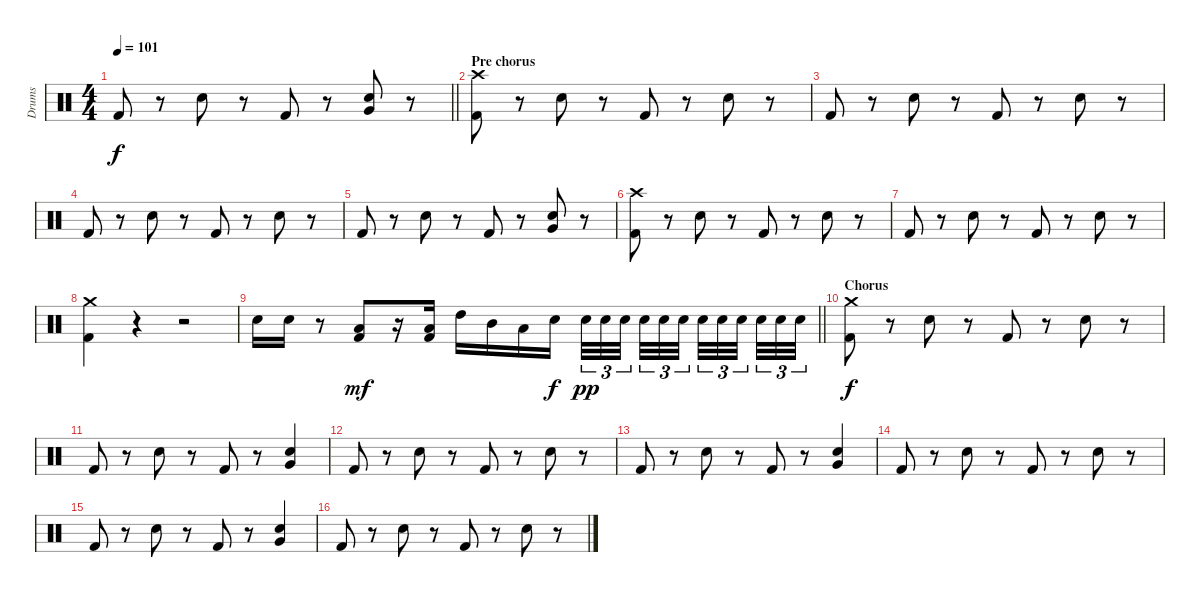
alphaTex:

\track ("Drums" "Drums") {instrument percussion}
\staff {score}
\articulation defaults
\ts (4 4)
\tempo 101
\clef neutral
\barLineRight lightlight
\ks c "Kick (hit) 2".8{dy f}
r.8 "Electric Snare (hit)".8 r.8 "Kick (hit) 2".8 r.8 ("Electric Snare (hit)" "Very Low Tom (hit)").8 r.8 |
\section ("" "Pre chorus")
("Crash high (hit)" "Kick (hit) 2").8 r.8 "Electric Snare (hit)".8 r.8 "Kick (hit) 2".8 r.8 "Electric Snare (hit)".8 r.8 |
"Kick (hit) 2".8 r.8 "Electric Snare (hit)".8 r.8 "Kick (hit) 2".8 r.8 "Electric Snare (hit)".8 r.8 |
"Kick (hit) 2".8 r.8 "Electric Snare (hit)".8 r.8 "Kick (hit) 2".8 r.8 "Electric Snare (hit)".8 r.8 |
"Kick (hit) 2".8 r.8 "Electric Snare (hit)".8 r.8 "Kick (hit) 2".8 r.8 ("Electric Snare (hit)" "Very Low Tom (hit)").8 r.8 |
("Crash high (hit)" "Kick (hit) 2").8 r.8 "Electric Snare (hit)".8 r.8 "Kick (hit) 2".8 r.8 "Electric Snare (hit)".8 r.8 |
"Kick (hit) 2".8 r.8 "Electric Snare (hit)".8 r.8 "Kick (hit) 2".8 r.8 "Electric Snare (hit)".8 r.8 |
("Crash medium (hit)" "Kick (hit) 2").4 r.4 r.2 |
\barLineRight lightlight "Electric Snare (hit)".16 "Electric Snare (hit)".16
r.8 ("Low Tom (hit)" "Kick (hit) 2").8{dy mf} r.16 ("Low Tom (hit)" "Kick (hit) 2").16 "High Tom (hit)".16 "Mid Tom (hit)".16 "Low Tom (hit)".16 "Electric Snare (hit)".16{dy f} "Electric Snare (hit)".32{tu (3 2) dy pp} "Electric Snare (hit)".32{tu (3 2)} "Electric Snare (hit)".32{tu (3 2) beam splitsecondary} "Electric Snare (hit)".32{tu (3 2)} "Electric Snare (hit)".32{tu (3 2)} "Electric Snare (hit)".32{tu (3 2) beam splitsecondary} "Electric Snare (hit)".32{tu (3 2)} "Electric Snare (hit)".32{tu (3 2)} "Electric Snare (hit)".32{tu (3 2) beam splitsecondary} "Electric Snare (hit)".32{tu (3 2)} "Electric Snare (hit)".32{tu (3 2)} "Electric Snare (hit)".32{tu (3 2)} |
\section ("" "Chorus")
("Crash medium (hit)" "Kick (hit) 2").8{dy f} r.8 "Electric Snare (hit)".8 r.8 "Kick (hit) 2".8 r.8 "Electric Snare (hit)".8 r.8 |
"Kick (hit) 2".8 r.8 "Electric Snare (hit)".8 r.8 "Kick (hit) 2".8 r.8 ("Electric Snare (hit)" "Very Low Tom (hit)").4 |
"Kick (hit) 2".8 r.8 "Electric Snare (hit)".8 r.8 "Kick (hit) 2".8 r.8 "Electric Snare (hit)".8 r.8 |
"Kick (hit) 2".8 r.8 "Electric Snare (hit)".8 r.8 "Kick (hit) 2".8 r.8 ("Electric Snare (hit)" "Very Low Tom (hit)").4 |
"Kick (hit) 2".8 r.8 "Electric Snare (hit)".8 r.8 "Kick (hit) 2".8 r.8 "Electric Snare (hit)".8 r.8 |
"Kick (hit) 2".8 r.8 "Electric Snare (hit)".8 r.8 "Kick (hit) 2".8 r.8 ("Electric Snare (hit)" "Very Low Tom (hit)").4 |
"Kick (hit) 2".8 r.8 "Electric Snare (hit)".8 r.8 "Kick (hit) 2".8 r.8 "Electric Snare (hit)".8 r.8
